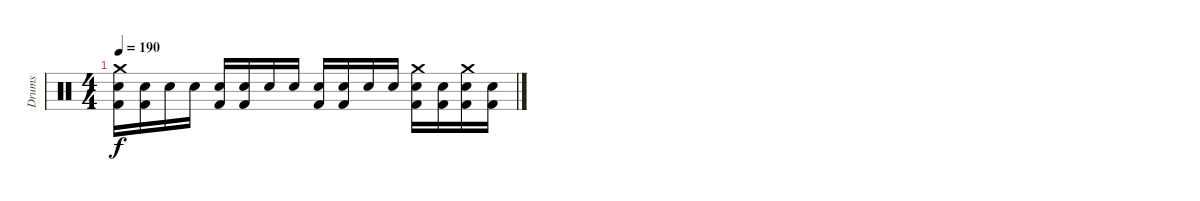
\track ("Drums" "Drums") {instrument percussion}
\staff {score}
\articulation defaults
\ts (4 4)
\tempo 190
\clef neutral
\ks c
("Crash medium (hit)" "Kick (hit) 2" "Electric Snare (hit)").16{dy f} ("Kick (hit) 2" "Electric Snare (hit)").16 "Electric Snare (hit)".16 "Electric Snare (hit)".16 ("Kick (hit) 2" "Electric Snare (hit)").16 ("Kick (hit) 2" "Electric Snare (hit)").16 "Electric Snare (hit)".16 "Electric Snare (hit)".16 ("Kick (hit) 2" "Electric Snare (hit)").16 ("Kick (hit) 2" "Electric Snare (hit)").16 "Electric Snare (hit)".16 "Electric Snare (hit)".16 ("Crash medium (hit)" "Kick (hit) 2" "Electric Snare (hit)").16 ("Kick (hit) 2" "Electric Snare (hit)").16 ("Crash medium (hit)" "Kick (hit) 2" "Electric Snare (hit)").16 ("Kick (hit) 2" "Electric Snare (hit)").16
